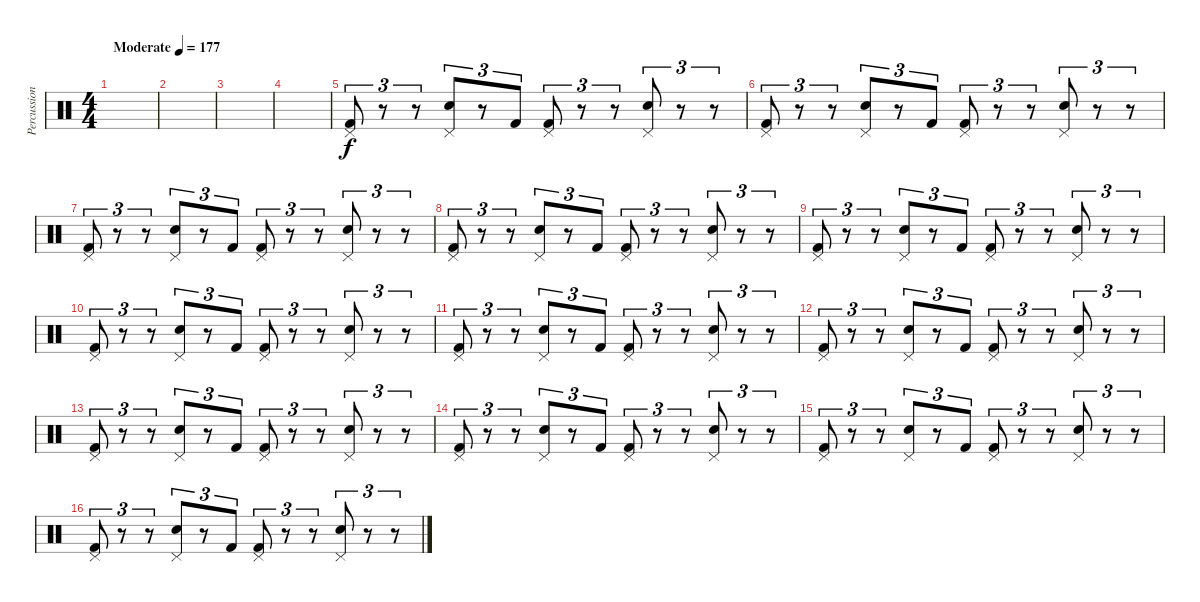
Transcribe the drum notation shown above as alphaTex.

\track ("Percussion" "Percussion") {instrument percussion}
\staff {score}
\articulation defaults
\ts (4 4)
\tempo (177 "Moderate")
\clef neutral
\ks c
|
|
|
|
("Pedal Hi-Hat (hit)" "Kick (hit) 2").8{tu (3 2)} r.8{tu (3 2)} r.8{tu (3 2)} ("Pedal Hi-Hat (hit)" "Electric Snare (hit)").8{tu (3 2)} r.8{tu (3 2)} "Kick (hit) 2".8{tu (3 2)} ("Pedal Hi-Hat (hit)" "Kick (hit) 2").8{tu (3 2)} r.8{tu (3 2)} r.8{tu (3 2)} ("Pedal Hi-Hat (hit)" "Electric Snare (hit)").8{tu (3 2)} r.8{tu (3 2)} r.8{tu (3 2)} |
("Pedal Hi-Hat (hit)" "Kick (hit) 2").8{tu (3 2)} r.8{tu (3 2)} r.8{tu (3 2)} ("Pedal Hi-Hat (hit)" "Electric Snare (hit)").8{tu (3 2)} r.8{tu (3 2)} "Kick (hit) 2".8{tu (3 2)} ("Pedal Hi-Hat (hit)" "Kick (hit) 2").8{tu (3 2)} r.8{tu (3 2)} r.8{tu (3 2)} ("Pedal Hi-Hat (hit)" "Electric Snare (hit)").8{tu (3 2)} r.8{tu (3 2)} r.8{tu (3 2)} |
("Pedal Hi-Hat (hit)" "Kick (hit) 2").8{tu (3 2)} r.8{tu (3 2)} r.8{tu (3 2)} ("Pedal Hi-Hat (hit)" "Electric Snare (hit)").8{tu (3 2)} r.8{tu (3 2)} "Kick (hit) 2".8{tu (3 2)} ("Pedal Hi-Hat (hit)" "Kick (hit) 2").8{tu (3 2)} r.8{tu (3 2)} r.8{tu (3 2)} ("Pedal Hi-Hat (hit)" "Electric Snare (hit)").8{tu (3 2)} r.8{tu (3 2)} r.8{tu (3 2)} |
("Pedal Hi-Hat (hit)" "Kick (hit) 2").8{tu (3 2)} r.8{tu (3 2)} r.8{tu (3 2)} ("Pedal Hi-Hat (hit)" "Electric Snare (hit)").8{tu (3 2)} r.8{tu (3 2)} "Kick (hit) 2".8{tu (3 2)} ("Pedal Hi-Hat (hit)" "Kick (hit) 2").8{tu (3 2)} r.8{tu (3 2)} r.8{tu (3 2)} ("Pedal Hi-Hat (hit)" "Electric Snare (hit)").8{tu (3 2)} r.8{tu (3 2)} r.8{tu (3 2)} |
("Pedal Hi-Hat (hit)" "Kick (hit) 2").8{tu (3 2)} r.8{tu (3 2)} r.8{tu (3 2)} ("Pedal Hi-Hat (hit)" "Electric Snare (hit)").8{tu (3 2)} r.8{tu (3 2)} "Kick (hit) 2".8{tu (3 2)} ("Pedal Hi-Hat (hit)" "Kick (hit) 2").8{tu (3 2)} r.8{tu (3 2)} r.8{tu (3 2)} ("Pedal Hi-Hat (hit)" "Electric Snare (hit)").8{tu (3 2)} r.8{tu (3 2)} r.8{tu (3 2)} |
("Pedal Hi-Hat (hit)" "Kick (hit) 2").8{tu (3 2)} r.8{tu (3 2)} r.8{tu (3 2)} ("Pedal Hi-Hat (hit)" "Electric Snare (hit)").8{tu (3 2)} r.8{tu (3 2)} "Kick (hit) 2".8{tu (3 2)} ("Pedal Hi-Hat (hit)" "Kick (hit) 2").8{tu (3 2)} r.8{tu (3 2)} r.8{tu (3 2)} ("Pedal Hi-Hat (hit)" "Electric Snare (hit)").8{tu (3 2)} r.8{tu (3 2)} r.8{tu (3 2)} |
("Pedal Hi-Hat (hit)" "Kick (hit) 2").8{tu (3 2)} r.8{tu (3 2)} r.8{tu (3 2)} ("Pedal Hi-Hat (hit)" "Electric Snare (hit)").8{tu (3 2)} r.8{tu (3 2)} "Kick (hit) 2".8{tu (3 2)} ("Pedal Hi-Hat (hit)" "Kick (hit) 2").8{tu (3 2)} r.8{tu (3 2)} r.8{tu (3 2)} ("Pedal Hi-Hat (hit)" "Electric Snare (hit)").8{tu (3 2)} r.8{tu (3 2)} r.8{tu (3 2)} |
("Pedal Hi-Hat (hit)" "Kick (hit) 2").8{tu (3 2)} r.8{tu (3 2)} r.8{tu (3 2)} ("Pedal Hi-Hat (hit)" "Electric Snare (hit)").8{tu (3 2)} r.8{tu (3 2)} "Kick (hit) 2".8{tu (3 2)} ("Pedal Hi-Hat (hit)" "Kick (hit) 2").8{tu (3 2)} r.8{tu (3 2)} r.8{tu (3 2)} ("Pedal Hi-Hat (hit)" "Electric Snare (hit)").8{tu (3 2)} r.8{tu (3 2)} r.8{tu (3 2)} |
("Pedal Hi-Hat (hit)" "Kick (hit) 2").8{tu (3 2)} r.8{tu (3 2)} r.8{tu (3 2)} ("Pedal Hi-Hat (hit)" "Electric Snare (hit)").8{tu (3 2)} r.8{tu (3 2)} "Kick (hit) 2".8{tu (3 2)} ("Pedal Hi-Hat (hit)" "Kick (hit) 2").8{tu (3 2)} r.8{tu (3 2)} r.8{tu (3 2)} ("Pedal Hi-Hat (hit)" "Electric Snare (hit)").8{tu (3 2)} r.8{tu (3 2)} r.8{tu (3 2)} |
("Pedal Hi-Hat (hit)" "Kick (hit) 2").8{tu (3 2)} r.8{tu (3 2)} r.8{tu (3 2)} ("Pedal Hi-Hat (hit)" "Electric Snare (hit)").8{tu (3 2)} r.8{tu (3 2)} "Kick (hit) 2".8{tu (3 2)} ("Pedal Hi-Hat (hit)" "Kick (hit) 2").8{tu (3 2)} r.8{tu (3 2)} r.8{tu (3 2)} ("Pedal Hi-Hat (hit)" "Electric Snare (hit)").8{tu (3 2)} r.8{tu (3 2)} r.8{tu (3 2)} |
("Pedal Hi-Hat (hit)" "Kick (hit) 2").8{tu (3 2)} r.8{tu (3 2)} r.8{tu (3 2)} ("Pedal Hi-Hat (hit)" "Electric Snare (hit)").8{tu (3 2)} r.8{tu (3 2)} "Kick (hit) 2".8{tu (3 2)} ("Pedal Hi-Hat (hit)" "Kick (hit) 2").8{tu (3 2)} r.8{tu (3 2)} r.8{tu (3 2)} ("Pedal Hi-Hat (hit)" "Electric Snare (hit)").8{tu (3 2)} r.8{tu (3 2)} r.8{tu (3 2)} |
("Pedal Hi-Hat (hit)" "Kick (hit) 2").8{tu (3 2)} r.8{tu (3 2)} r.8{tu (3 2)} ("Pedal Hi-Hat (hit)" "Electric Snare (hit)").8{tu (3 2)} r.8{tu (3 2)} "Kick (hit) 2".8{tu (3 2)} ("Pedal Hi-Hat (hit)" "Kick (hit) 2").8{tu (3 2)} r.8{tu (3 2)} r.8{tu (3 2)} ("Pedal Hi-Hat (hit)" "Electric Snare (hit)").8{tu (3 2)} r.8{tu (3 2)} r.8{tu (3 2)}
